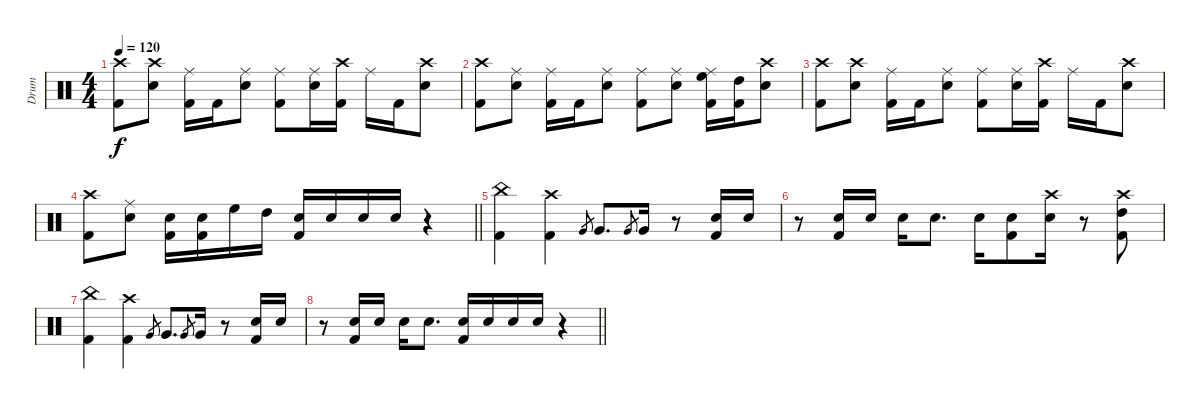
\track ("Drum" "Drum") {instrument percussion}
\staff {score}
\articulation defaults
\ts (4 4)
\tempo 120
\clef neutral
\ks c
("Crash high (hit)" "Kick (hit) 2").8{dy f} ("Crash high (hit)" "Snare (hit) 2").8 ("Ride (middle)" "Kick (hit) 2").16 "Kick (hit) 2".16 ("Ride (middle)" "Snare (hit) 2").8 ("Ride (middle)" "Kick (hit) 2").8 ("Ride (middle)" "Snare (hit) 2").16 ("Crash high (hit)" "Kick (hit) 2").16 "Ride (middle)".16 "Kick (hit) 2".16 ("Crash high (hit)" "Snare (hit) 2").8 |
("Crash high (hit)" "Kick (hit) 2").8 ("Ride (middle)" "Snare (hit) 2").8 ("Ride (middle)" "Kick (hit) 2").16 "Kick (hit) 2".16 ("Ride (middle)" "Snare (hit) 2").8 ("Ride (middle)" "Kick (hit) 2").8 ("Ride (middle)" "Snare (hit) 2").8 ("Ride (middle)" "High Floor Tom (hit)" "Kick (hit) 2").16 ("High Tom (hit)" "Kick (hit) 2").16 ("Crash high (hit)" "Snare (hit) 2").8 |
("Crash high (hit)" "Kick (hit) 2").8 ("Crash high (hit)" "Snare (hit) 2").8 ("Ride (middle)" "Kick (hit) 2").16 "Kick (hit) 2".16 ("Ride (middle)" "Snare (hit) 2").8 ("Ride (middle)" "Kick (hit) 2").8 ("Ride (middle)" "Snare (hit) 2").16 ("Crash high (hit)" "Kick (hit) 2").16 "Ride (middle)".16 "Kick (hit) 2".16 ("Crash high (hit)" "Snare (hit) 2").8 |
\barLineRight lightlight
("Crash high (hit)" "Kick (hit) 2").8 ("Ride (middle)" "Snare (hit) 2").8 ("Snare (hit) 2" "Kick (hit) 2").16 ("Snare (hit) 2" "Kick (hit) 2").16 "High Floor Tom (hit)".16 "High Tom (hit)".16 ("Snare (hit) 2" "Kick (hit) 2").16 "Snare (hit) 2".16 "Snare (hit) 2".16 "Snare (hit) 2".16 r.4 |
("China (hit)" "Kick (hit) 2").4 ("Crash high (hit)" "Kick (hit) 2").4 "Very Low Tom (hit)".8{gr} "Very Low Tom (hit)".8{d} "Very Low Tom (hit)".8{gr} "Very Low Tom (hit)".16 r.8 ("Snare (hit) 2" "Kick (hit) 2").16 "Snare (hit) 2".16 |
r.8 ("Snare (hit) 2" "Kick (hit) 2").16 "Snare (hit) 2".16 "Snare (hit) 2".16 "Snare (hit) 2".8{d} "Snare (hit) 2".16 ("Snare (hit) 2" "Kick (hit) 2").8 ("Crash high (hit)" "Snare (hit) 2").16 r.8 ("Crash high (hit)" "High Tom (hit)" "Kick (hit) 2").8 |
("China (hit)" "Kick (hit) 2").4 ("Crash high (hit)" "Kick (hit) 2").4 "Very Low Tom (hit)".8{gr} "Very Low Tom (hit)".8{d} "Very Low Tom (hit)".8{gr} "Very Low Tom (hit)".16 r.8 ("Snare (hit) 2" "Kick (hit) 2").16 "Snare (hit) 2".16 |
\barLineRight lightlight
r.8 ("Snare (hit) 2" "Kick (hit) 2").16 "Snare (hit) 2".16 "Snare (hit) 2".16 "Snare (hit) 2".8{d} ("Snare (hit) 2" "Kick (hit) 2").16 "Snare (hit) 2".16 "Snare (hit) 2".16 "Snare (hit) 2".16 r.4
